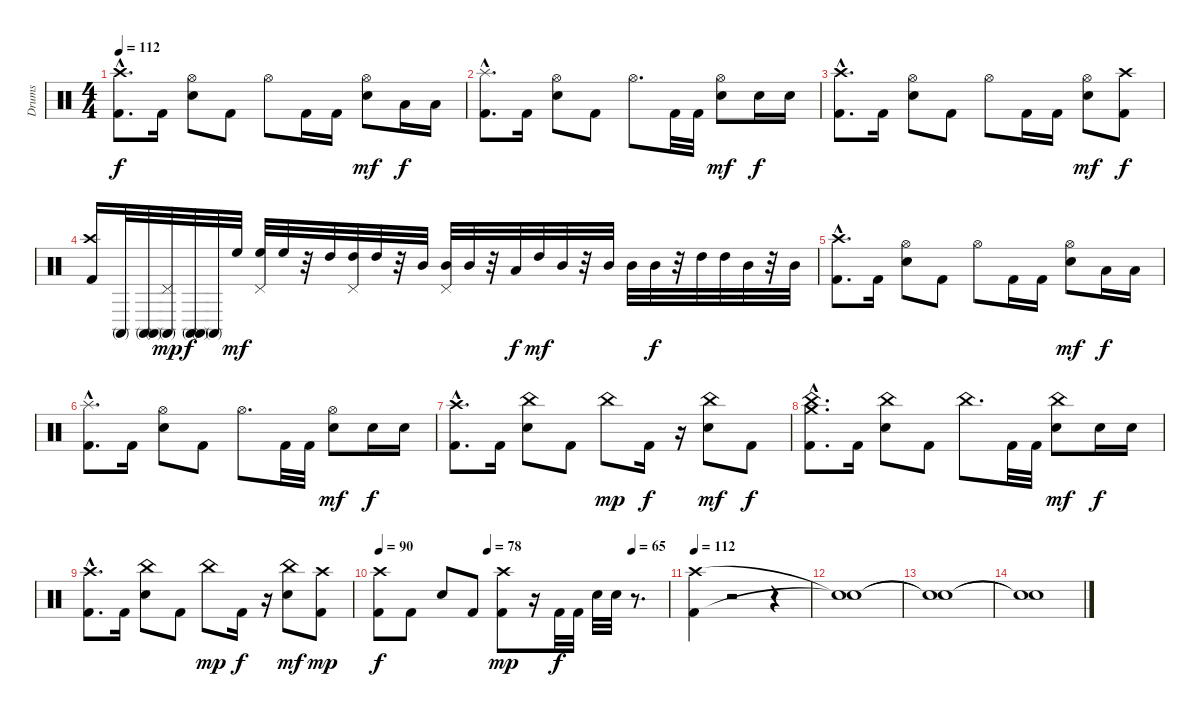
\track ("Drums" "Drums") {instrument percussion}
\staff {score}
\articulation defaults
\ts (4 4)
\tempo 112
\clef neutral
\ks c
("Kick (hit) 2"{hac} "Crash high (hit)").8{d dy f} "Kick (hit) 2".16 ("Electric Snare (hit)" "Hi-Hat (open)").8 "Kick (hit) 2".8 "Hi-Hat (open)".8 "Kick (hit) 2".16 "Kick (hit) 2".16 ("Electric Snare (hit)" "Hi-Hat (open)").8{dy mf} "Low Tom (hit)".16{dy f} "Low Tom (hit)".16 |
("Kick (hit) 2"{hac} "Splash (hit)").8{d} "Kick (hit) 2".16 ("Electric Snare (hit)" "Hi-Hat (open)").8 "Kick (hit) 2".8 "Hi-Hat (open)".8{d} "Kick (hit) 2".32 "Kick (hit) 2".32 ("Hi-Hat (open)" "Electric Snare (hit)").8{dy mf} "Electric Snare (hit)".16{dy f} "Electric Snare (hit)".16 |
("Crash high (hit)" "Kick (hit) 2"{hac}).8{d} "Kick (hit) 2".16 ("Electric Snare (hit)" "Hi-Hat (open)").8 "Kick (hit) 2".8 "Hi-Hat (open)".8 "Kick (hit) 2".16 "Kick (hit) 2".16 ("Hi-Hat (open)" "Electric Snare (hit)").8{dy mf} ("Kick (hit) 2" "Crash high (hit)").8{dy f} |
("Crash high (hit)" "Kick (hit) 2").16 "Conga high (mute)".32 ("Conga high (mute)" "Conga high (mute)").32 ("Pedal Hi-Hat (hit)" "Conga high (mute)").32{dy mp} ("Conga high (mute)" "Conga high (mute)").32{dy f} "Conga high (mute)".32 "High Floor Tom (hit)".32{dy mf} ("Pedal Hi-Hat (hit)" "High Floor Tom (hit)").32 "High Floor Tom (hit)".32 r.32 "High Tom (hit)".32 ("Pedal Hi-Hat (hit)" "High Tom (hit)").32 "High Tom (hit)".32 r.32 "Mid Tom (hit)".32 ("Pedal Hi-Hat (hit)" "Mid Tom (hit)").32 "Mid Tom (hit)".32 r.32 "Low Tom (hit)".32{dy f} "High Tom (hit)".32{dy mf} "Mid Tom (hit)".32 r.32 "Mid Tom (hit)".32 "Mid Tom (hit)".32 "Mid Tom (hit)".32{dy f} r.32 "High Tom (hit)".32 "High Tom (hit)".32 "Mid Tom (hit)".32 r.32 "Mid Tom (hit)".32 |
("Crash high (hit)" "Kick (hit) 2"{hac}).8{d} "Kick (hit) 2".16 ("Electric Snare (hit)" "Hi-Hat (open)").8 "Kick (hit) 2".8 "Hi-Hat (open)".8 "Kick (hit) 2".16 "Kick (hit) 2".16 ("Electric Snare (hit)" "Hi-Hat (open)").8{dy mf} "Low Tom (hit)".16{dy f} "Low Tom (hit)".16 |
("Kick (hit) 2"{hac} "Splash (hit)").8{d} "Kick (hit) 2".16 ("Electric Snare (hit)" "Hi-Hat (open)").8 "Kick (hit) 2".8 "Hi-Hat (open)".8{d} "Kick (hit) 2".32 "Kick (hit) 2".32 ("Hi-Hat (open)" "Electric Snare (hit)").8{dy mf} "Electric Snare (hit)".16{dy f} "Electric Snare (hit)".16 |
("Kick (hit) 2"{hac} "Crash high (hit)").8{d} "Kick (hit) 2".16 ("Electric Snare (hit)" "China (hit)").8 "Kick (hit) 2".8 "China (hit)".8{dy mp} "Kick (hit) 2".16{dy f} r.16 ("Electric Snare (hit)" "China (hit)").8{dy mf} "Kick (hit) 2".8{dy f} |
("Kick (hit) 2"{hac} "Crash medium (hit)" "China (hit)").8{d} "Kick (hit) 2".16 ("Electric Snare (hit)" "China (hit)").8 "Kick (hit) 2".8 "China (hit)".8{d} "Kick (hit) 2".32 "Kick (hit) 2".32 ("Electric Snare (hit)" "China (hit)").8{dy mf} "Electric Snare (hit)".16{dy f} "Electric Snare (hit)".16 |
("Crash high (hit)" "Kick (hit) 2"{hac}).8{d} "Kick (hit) 2".16 ("Electric Snare (hit)" "China (hit)").8 "Kick (hit) 2".8 "China (hit)".8{dy mp} "Kick (hit) 2".16{dy f} r.16 ("Electric Snare (hit)" "China (hit)").8{dy mf} ("Kick (hit) 2" "Crash high (hit)").8{dy mp} |
\tempo 90
\tempo (78 0.375)
\tempo (65 0.875)
("Crash high (hit)" "Kick (hit) 2").8{dy f} "Kick (hit) 2".8 "Electric Snare (hit)".8 "Kick (hit) 2".8 ("Kick (hit) 2" "Crash high (hit)").8{dy mp} r.16 "Kick (hit) 2".32{dy f} "Kick (hit) 2".32 "Electric Snare (hit)".32 "Electric Snare (hit)".32 r.8{d} |
\tempo 112
("Kick (hit) 2" "Crash high (hit)").4 r.2 r.4 |
("Snare (hit)"{t} "Snare (hit)"{t}).1 |
("Snare (hit)"{t} "Snare (hit)"{t}).1 |
("Snare (hit)"{t} "Snare (hit)"{t}).1
